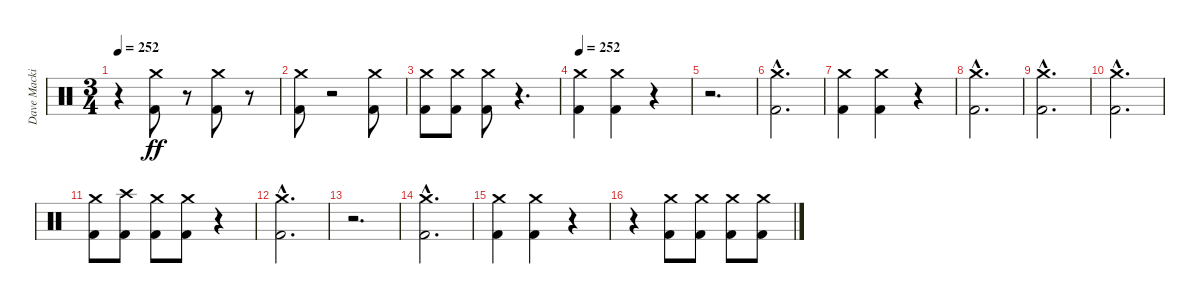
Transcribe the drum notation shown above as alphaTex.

\track ("Dave Mackintosh" "Dave Macki") {instrument percussion}
\staff {score}
\articulation defaults
\ts (3 4)
\tempo 252
\clef neutral
\ks c
r.4{dy ff} ("Crash medium (hit)" "Kick (hit) 2").8 r.8 ("Crash medium (hit)" "Kick (hit) 2").8 r.8 |
("Crash medium (hit)" "Kick (hit) 2").8 r.2 ("Crash medium (hit)" "Kick (hit) 2").8 |
("Crash medium (hit)" "Kick (hit) 2").8 ("Crash medium (hit)" "Kick (hit) 2").8 ("Crash medium (hit)" "Kick (hit) 2").8 r.4{d} |
\tempo 252
("Crash medium (hit)" "Kick (hit) 2").4 ("Crash medium (hit)" "Kick (hit) 2").4 r.4 |
r.2{d} |
("Crash medium (hit)"{hac} "Kick (hit) 2"{hac}).2{d} |
("Crash medium (hit)" "Kick (hit) 2").4 ("Crash medium (hit)" "Kick (hit) 2").4 r.4 |
("Crash medium (hit)"{hac} "Kick (hit) 2"{hac}).2{d} |
("Crash medium (hit)"{hac} "Kick (hit) 2"{hac}).2{d} |
("Crash medium (hit)"{hac} "Kick (hit) 2"{hac}).2{d} |
("Crash medium (hit)" "Kick (hit) 2").8 ("Crash high (hit)" "Kick (hit) 2").8 ("Crash medium (hit)" "Kick (hit) 2").8 ("Crash medium (hit)" "Kick (hit) 2").8 r.4 |
("Crash medium (hit)"{hac} "Kick (hit) 2"{hac}).2{d} |
r.2{d} |
("Crash medium (hit)"{hac} "Kick (hit) 2"{hac}).2{d} |
("Crash medium (hit)" "Kick (hit) 2").4 ("Crash medium (hit)" "Kick (hit) 2").4 r.4 |
r.4 ("Crash medium (hit)" "Kick (hit) 2").8 ("Crash medium (hit)" "Kick (hit) 2").8 ("Crash medium (hit)" "Kick (hit) 2").8 ("Crash medium (hit)" "Kick (hit) 2").8
